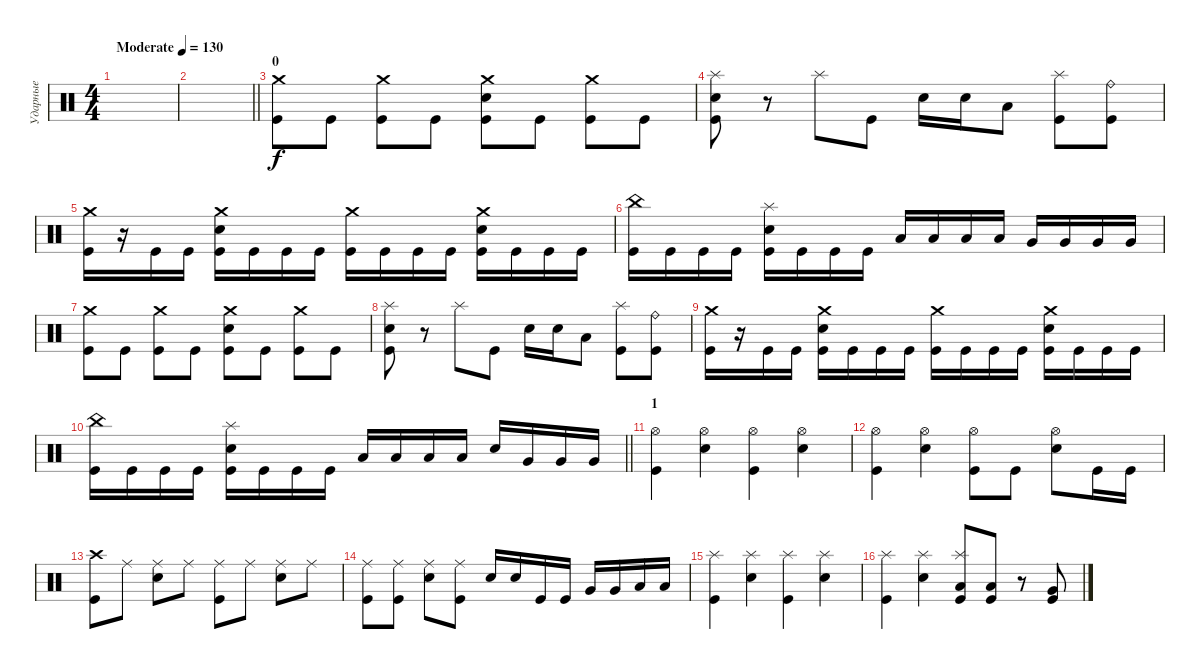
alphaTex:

\track ("Ударные" "Ударные") {instrument percussion}
\staff {score}
\articulation defaults
\ts (4 4)
\tempo (130 "Moderate")
\clef neutral
\ks c
|
\barLineRight lightlight
|
\section ("" "0")
("Crash medium (hit)" "Kick (hit)").8 "Kick (hit)".8 ("Crash medium (hit)" "Kick (hit)").8 "Kick (hit)".8 ("Crash medium (hit)" "Electric Snare (hit)" "Kick (hit)").8 "Kick (hit)".8 ("Crash medium (hit)" "Kick (hit)").8 "Kick (hit)".8 |
("Splash (hit)" "Electric Snare (hit)" "Kick (hit)").8 r.8 "Splash (hit)".8 "Kick (hit)".8 "Electric Snare (hit)".16 "Electric Snare (hit)".16 "Low Tom (hit)".8 ("Splash (hit)" "Kick (hit)").8 ("Ride (bell)" "Kick (hit)").8 |
("Crash medium (hit)" "Kick (hit)").16 r.16 "Kick (hit)".16 "Kick (hit)".16 ("Crash medium (hit)" "Electric Snare (hit)" "Kick (hit)").16 "Kick (hit)".16 "Kick (hit)".16 "Kick (hit)".16 ("Crash medium (hit)" "Kick (hit)").16 "Kick (hit)".16 "Kick (hit)".16 "Kick (hit)".16 ("Crash medium (hit)" "Electric Snare (hit)" "Kick (hit)").16 "Kick (hit)".16 "Kick (hit)".16 "Kick (hit)".16 |
("China (hit)" "Kick (hit)").16 "Kick (hit)".16 "Kick (hit)".16 "Kick (hit)".16 ("Splash (hit)" "Electric Snare (hit)" "Kick (hit)").16 "Kick (hit)".16 "Kick (hit)".16 "Kick (hit)".16 "Low Tom (hit)".16 "Low Tom (hit)".16 "Low Tom (hit)".16 "Low Tom (hit)".16 "Very Low Tom (hit)".16 "Very Low Tom (hit)".16 "Very Low Tom (hit)".16 "Very Low Tom (hit)".16 |
("Crash medium (hit)" "Kick (hit)").8 "Kick (hit)".8 ("Crash medium (hit)" "Kick (hit)").8 "Kick (hit)".8 ("Crash medium (hit)" "Electric Snare (hit)" "Kick (hit)").8 "Kick (hit)".8 ("Crash medium (hit)" "Kick (hit)").8 "Kick (hit)".8 |
("Splash (hit)" "Electric Snare (hit)" "Kick (hit)").8 r.8 "Splash (hit)".8 "Kick (hit)".8 "Electric Snare (hit)".16 "Electric Snare (hit)".16 "Low Tom (hit)".8 ("Splash (hit)" "Kick (hit)").8 ("Ride (bell)" "Kick (hit)").8 |
("Crash medium (hit)" "Kick (hit)").16 r.16 "Kick (hit)".16 "Kick (hit)".16 ("Crash medium (hit)" "Electric Snare (hit)" "Kick (hit)").16 "Kick (hit)".16 "Kick (hit)".16 "Kick (hit)".16 ("Crash medium (hit)" "Kick (hit)").16 "Kick (hit)".16 "Kick (hit)".16 "Kick (hit)".16 ("Crash medium (hit)" "Electric Snare (hit)" "Kick (hit)").16 "Kick (hit)".16 "Kick (hit)".16 "Kick (hit)".16 |
\barLineRight lightlight
("China (hit)" "Kick (hit)").16 "Kick (hit)".16 "Kick (hit)".16 "Kick (hit)".16 ("Splash (hit)" "Electric Snare (hit)" "Kick (hit)").16 "Kick (hit)".16 "Kick (hit)".16 "Kick (hit)".16 "Low Tom (hit)".16 "Low Tom (hit)".16 "Low Tom (hit)".16 "Low Tom (hit)".16 "Electric Snare (hit)".16 "Very Low Tom (hit)".16 "Very Low Tom (hit)".16 "Very Low Tom (hit)".16 |
\section ("" "1")
("Hi-Hat (open)" "Kick (hit)").4 ("Hi-Hat (open)" "Electric Snare (hit)").4 ("Hi-Hat (open)" "Kick (hit)").4 ("Hi-Hat (open)" "Electric Snare (hit)").4 |
("Hi-Hat (open)" "Kick (hit)").4 ("Hi-Hat (open)" "Electric Snare (hit)").4 ("Hi-Hat (open)" "Kick (hit)").8 "Kick (hit)".8 ("Hi-Hat (open)" "Electric Snare (hit)").8 "Kick (hit)".16 "Kick (hit)".16 |
("Crash high (hit)" "Kick (hit)").8 "Ride (middle)".8 ("Ride (middle)" "Electric Snare (hit)").8 "Ride (middle)".8 ("Ride (middle)" "Kick (hit)").8 "Ride (middle)".8 ("Ride (middle)" "Electric Snare (hit)").8 "Ride (middle)".8 |
("Ride (middle)" "Kick (hit)").8 ("Ride (middle)" "Kick (hit)").8 ("Ride (middle)" "Electric Snare (hit)").8 ("Ride (middle)" "Kick (hit)").8 "Electric Snare (hit)".16 "Electric Snare (hit)".16 "Kick (hit)".16 "Kick (hit)".16 "Very Low Tom (hit)".16 "Very Low Tom (hit)".16 "Low Floor Tom (hit)".16 "Low Floor Tom (hit)".16 |
("Splash (hit)" "Kick (hit)").4 ("Splash (hit)" "Electric Snare (hit)").4 ("Splash (hit)" "Kick (hit)").4 ("Splash (hit)" "Electric Snare (hit)").4 |
("Splash (hit)" "Kick (hit)").4 ("Splash (hit)" "Electric Snare (hit)").4 ("Splash (hit)" "Low Tom (hit)" "Kick (hit)").8 ("Low Tom (hit)" "Kick (hit)").8 r.8 ("Very Low Tom (hit)" "Kick (hit)").8
